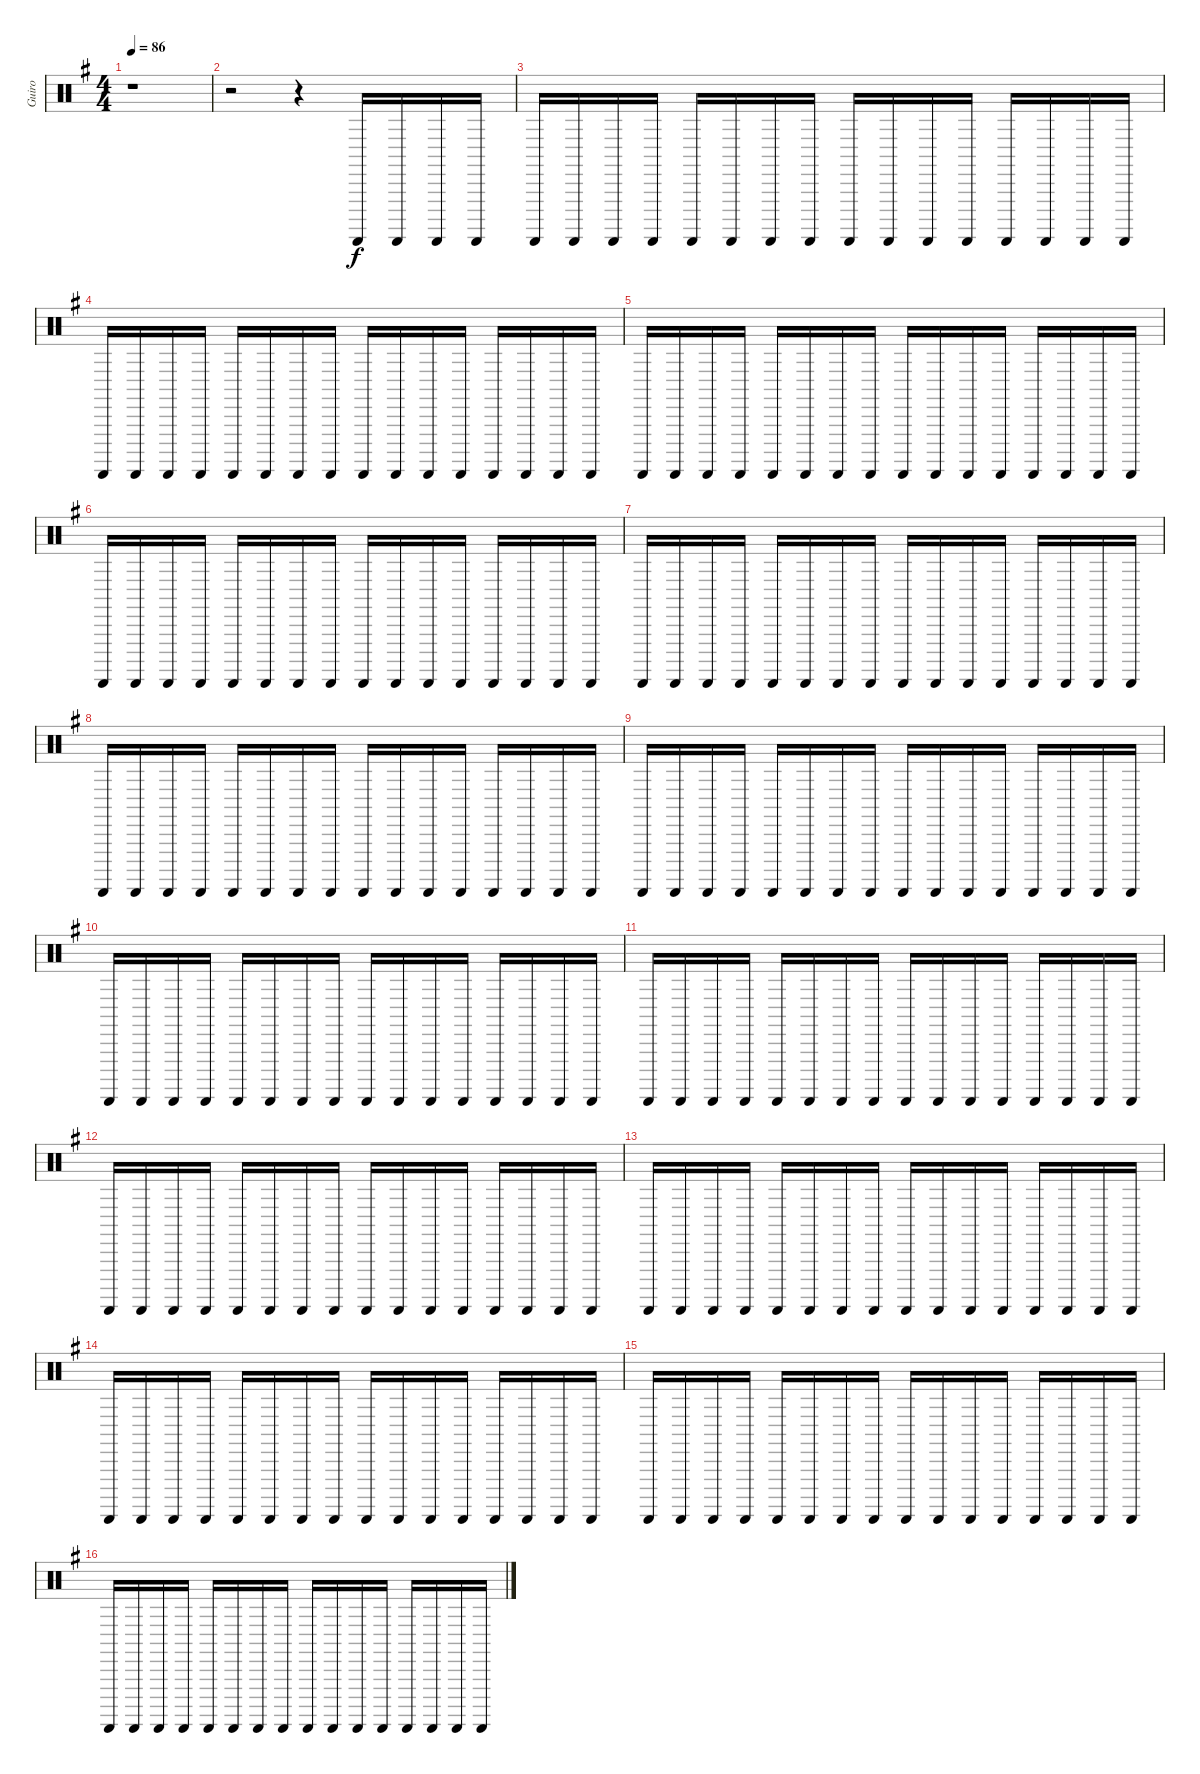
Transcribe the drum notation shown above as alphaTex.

\track ("Guiro" "Guiro") {instrument percussion}
\staff {score}
\articulation defaults
\ts (4 4)
\tempo 86
\clef neutral
\ks g
r.1{dy f} |
r.2 r.4 "Guiro (scrap-return)".16 "Guiro (scrap-return)".16 "Guiro (scrap-return)".16 "Guiro (scrap-return)".16 |
"Guiro (scrap-return)".16 "Guiro (scrap-return)".16 "Guiro (scrap-return)".16 "Guiro (scrap-return)".16 "Guiro (scrap-return)".16 "Guiro (scrap-return)".16 "Guiro (scrap-return)".16 "Guiro (scrap-return)".16 "Guiro (scrap-return)".16 "Guiro (scrap-return)".16 "Guiro (scrap-return)".16 "Guiro (scrap-return)".16 "Guiro (scrap-return)".16 "Guiro (scrap-return)".16 "Guiro (scrap-return)".16 "Guiro (scrap-return)".16 |
"Guiro (scrap-return)".16 "Guiro (scrap-return)".16 "Guiro (scrap-return)".16 "Guiro (scrap-return)".16 "Guiro (scrap-return)".16 "Guiro (scrap-return)".16 "Guiro (scrap-return)".16 "Guiro (scrap-return)".16 "Guiro (scrap-return)".16 "Guiro (scrap-return)".16 "Guiro (scrap-return)".16 "Guiro (scrap-return)".16 "Guiro (scrap-return)".16 "Guiro (scrap-return)".16 "Guiro (scrap-return)".16 "Guiro (scrap-return)".16 |
"Guiro (scrap-return)".16 "Guiro (scrap-return)".16 "Guiro (scrap-return)".16 "Guiro (scrap-return)".16 "Guiro (scrap-return)".16 "Guiro (scrap-return)".16 "Guiro (scrap-return)".16 "Guiro (scrap-return)".16 "Guiro (scrap-return)".16 "Guiro (scrap-return)".16 "Guiro (scrap-return)".16 "Guiro (scrap-return)".16 "Guiro (scrap-return)".16 "Guiro (scrap-return)".16 "Guiro (scrap-return)".16 "Guiro (scrap-return)".16 |
"Guiro (scrap-return)".16 "Guiro (scrap-return)".16 "Guiro (scrap-return)".16 "Guiro (scrap-return)".16 "Guiro (scrap-return)".16 "Guiro (scrap-return)".16 "Guiro (scrap-return)".16 "Guiro (scrap-return)".16 "Guiro (scrap-return)".16 "Guiro (scrap-return)".16 "Guiro (scrap-return)".16 "Guiro (scrap-return)".16 "Guiro (scrap-return)".16 "Guiro (scrap-return)".16 "Guiro (scrap-return)".16 "Guiro (scrap-return)".16 |
"Guiro (scrap-return)".16 "Guiro (scrap-return)".16 "Guiro (scrap-return)".16 "Guiro (scrap-return)".16 "Guiro (scrap-return)".16 "Guiro (scrap-return)".16 "Guiro (scrap-return)".16 "Guiro (scrap-return)".16 "Guiro (scrap-return)".16 "Guiro (scrap-return)".16 "Guiro (scrap-return)".16 "Guiro (scrap-return)".16 "Guiro (scrap-return)".16 "Guiro (scrap-return)".16 "Guiro (scrap-return)".16 "Guiro (scrap-return)".16 |
"Guiro (scrap-return)".16 "Guiro (scrap-return)".16 "Guiro (scrap-return)".16 "Guiro (scrap-return)".16 "Guiro (scrap-return)".16 "Guiro (scrap-return)".16 "Guiro (scrap-return)".16 "Guiro (scrap-return)".16 "Guiro (scrap-return)".16 "Guiro (scrap-return)".16 "Guiro (scrap-return)".16 "Guiro (scrap-return)".16 "Guiro (scrap-return)".16 "Guiro (scrap-return)".16 "Guiro (scrap-return)".16 "Guiro (scrap-return)".16 |
"Guiro (scrap-return)".16 "Guiro (scrap-return)".16 "Guiro (scrap-return)".16 "Guiro (scrap-return)".16 "Guiro (scrap-return)".16 "Guiro (scrap-return)".16 "Guiro (scrap-return)".16 "Guiro (scrap-return)".16 "Guiro (scrap-return)".16 "Guiro (scrap-return)".16 "Guiro (scrap-return)".16 "Guiro (scrap-return)".16 "Guiro (scrap-return)".16 "Guiro (scrap-return)".16 "Guiro (scrap-return)".16 "Guiro (scrap-return)".16 |
"Guiro (scrap-return)".16 "Guiro (scrap-return)".16 "Guiro (scrap-return)".16 "Guiro (scrap-return)".16 "Guiro (scrap-return)".16 "Guiro (scrap-return)".16 "Guiro (scrap-return)".16 "Guiro (scrap-return)".16 "Guiro (scrap-return)".16 "Guiro (scrap-return)".16 "Guiro (scrap-return)".16 "Guiro (scrap-return)".16 "Guiro (scrap-return)".16 "Guiro (scrap-return)".16 "Guiro (scrap-return)".16 "Guiro (scrap-return)".16 |
"Guiro (scrap-return)".16 "Guiro (scrap-return)".16 "Guiro (scrap-return)".16 "Guiro (scrap-return)".16 "Guiro (scrap-return)".16 "Guiro (scrap-return)".16 "Guiro (scrap-return)".16 "Guiro (scrap-return)".16 "Guiro (scrap-return)".16 "Guiro (scrap-return)".16 "Guiro (scrap-return)".16 "Guiro (scrap-return)".16 "Guiro (scrap-return)".16 "Guiro (scrap-return)".16 "Guiro (scrap-return)".16 "Guiro (scrap-return)".16 |
"Guiro (scrap-return)".16 "Guiro (scrap-return)".16 "Guiro (scrap-return)".16 "Guiro (scrap-return)".16 "Guiro (scrap-return)".16 "Guiro (scrap-return)".16 "Guiro (scrap-return)".16 "Guiro (scrap-return)".16 "Guiro (scrap-return)".16 "Guiro (scrap-return)".16 "Guiro (scrap-return)".16 "Guiro (scrap-return)".16 "Guiro (scrap-return)".16 "Guiro (scrap-return)".16 "Guiro (scrap-return)".16 "Guiro (scrap-return)".16 |
"Guiro (scrap-return)".16 "Guiro (scrap-return)".16 "Guiro (scrap-return)".16 "Guiro (scrap-return)".16 "Guiro (scrap-return)".16 "Guiro (scrap-return)".16 "Guiro (scrap-return)".16 "Guiro (scrap-return)".16 "Guiro (scrap-return)".16 "Guiro (scrap-return)".16 "Guiro (scrap-return)".16 "Guiro (scrap-return)".16 "Guiro (scrap-return)".16 "Guiro (scrap-return)".16 "Guiro (scrap-return)".16 "Guiro (scrap-return)".16 |
"Guiro (scrap-return)".16 "Guiro (scrap-return)".16 "Guiro (scrap-return)".16 "Guiro (scrap-return)".16 "Guiro (scrap-return)".16 "Guiro (scrap-return)".16 "Guiro (scrap-return)".16 "Guiro (scrap-return)".16 "Guiro (scrap-return)".16 "Guiro (scrap-return)".16 "Guiro (scrap-return)".16 "Guiro (scrap-return)".16 "Guiro (scrap-return)".16 "Guiro (scrap-return)".16 "Guiro (scrap-return)".16 "Guiro (scrap-return)".16 |
"Guiro (scrap-return)".16 "Guiro (scrap-return)".16 "Guiro (scrap-return)".16 "Guiro (scrap-return)".16 "Guiro (scrap-return)".16 "Guiro (scrap-return)".16 "Guiro (scrap-return)".16 "Guiro (scrap-return)".16 "Guiro (scrap-return)".16 "Guiro (scrap-return)".16 "Guiro (scrap-return)".16 "Guiro (scrap-return)".16 "Guiro (scrap-return)".16 "Guiro (scrap-return)".16 "Guiro (scrap-return)".16 "Guiro (scrap-return)".16 |
"Guiro (scrap-return)".16 "Guiro (scrap-return)".16 "Guiro (scrap-return)".16 "Guiro (scrap-return)".16 "Guiro (scrap-return)".16 "Guiro (scrap-return)".16 "Guiro (scrap-return)".16 "Guiro (scrap-return)".16 "Guiro (scrap-return)".16 "Guiro (scrap-return)".16 "Guiro (scrap-return)".16 "Guiro (scrap-return)".16 "Guiro (scrap-return)".16 "Guiro (scrap-return)".16 "Guiro (scrap-return)".16 "Guiro (scrap-return)".16
